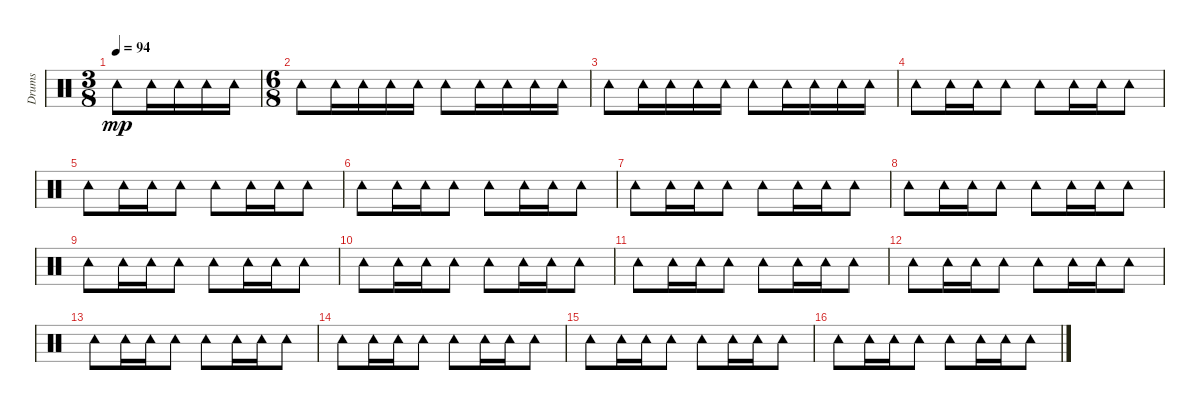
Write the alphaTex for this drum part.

\track ("Drums" "Drums") {instrument percussion}
\staff {score}
\articulation defaults
\ts (3 8)
\tempo 94
\clef neutral
\ks c "Tambourine (hit)".8{dy mp} "Tambourine (hit)".16 "Tambourine (hit)".16 "Tambourine (hit)".16 "Tambourine (hit)".16
|
\ts (6 8)
"Tambourine (hit)".8 "Tambourine (hit)".16 "Tambourine (hit)".16 "Tambourine (hit)".16 "Tambourine (hit)".16 "Tambourine (hit)".8 "Tambourine (hit)".16 "Tambourine (hit)".16 "Tambourine (hit)".16 "Tambourine (hit)".16 |
"Tambourine (hit)".8 "Tambourine (hit)".16 "Tambourine (hit)".16 "Tambourine (hit)".16 "Tambourine (hit)".16 "Tambourine (hit)".8 "Tambourine (hit)".16 "Tambourine (hit)".16 "Tambourine (hit)".16 "Tambourine (hit)".16 |
"Tambourine (hit)".8 "Tambourine (hit)".16 "Tambourine (hit)".16 "Tambourine (hit)".8 "Tambourine (hit)".8 "Tambourine (hit)".16 "Tambourine (hit)".16 "Tambourine (hit)".8 |
"Tambourine (hit)".8 "Tambourine (hit)".16 "Tambourine (hit)".16 "Tambourine (hit)".8 "Tambourine (hit)".8 "Tambourine (hit)".16 "Tambourine (hit)".16 "Tambourine (hit)".8 |
"Tambourine (hit)".8 "Tambourine (hit)".16 "Tambourine (hit)".16 "Tambourine (hit)".8 "Tambourine (hit)".8 "Tambourine (hit)".16 "Tambourine (hit)".16 "Tambourine (hit)".8 |
"Tambourine (hit)".8 "Tambourine (hit)".16 "Tambourine (hit)".16 "Tambourine (hit)".8 "Tambourine (hit)".8 "Tambourine (hit)".16 "Tambourine (hit)".16 "Tambourine (hit)".8 |
"Tambourine (hit)".8 "Tambourine (hit)".16 "Tambourine (hit)".16 "Tambourine (hit)".8 "Tambourine (hit)".8 "Tambourine (hit)".16 "Tambourine (hit)".16 "Tambourine (hit)".8 |
"Tambourine (hit)".8 "Tambourine (hit)".16 "Tambourine (hit)".16 "Tambourine (hit)".8 "Tambourine (hit)".8 "Tambourine (hit)".16 "Tambourine (hit)".16 "Tambourine (hit)".8 |
"Tambourine (hit)".8 "Tambourine (hit)".16 "Tambourine (hit)".16 "Tambourine (hit)".8 "Tambourine (hit)".8 "Tambourine (hit)".16 "Tambourine (hit)".16 "Tambourine (hit)".8 |
"Tambourine (hit)".8 "Tambourine (hit)".16 "Tambourine (hit)".16 "Tambourine (hit)".8 "Tambourine (hit)".8 "Tambourine (hit)".16 "Tambourine (hit)".16 "Tambourine (hit)".8 |
"Tambourine (hit)".8 "Tambourine (hit)".16 "Tambourine (hit)".16 "Tambourine (hit)".8 "Tambourine (hit)".8 "Tambourine (hit)".16 "Tambourine (hit)".16 "Tambourine (hit)".8 |
"Tambourine (hit)".8 "Tambourine (hit)".16 "Tambourine (hit)".16 "Tambourine (hit)".8 "Tambourine (hit)".8 "Tambourine (hit)".16 "Tambourine (hit)".16 "Tambourine (hit)".8 |
"Tambourine (hit)".8 "Tambourine (hit)".16 "Tambourine (hit)".16 "Tambourine (hit)".8 "Tambourine (hit)".8 "Tambourine (hit)".16 "Tambourine (hit)".16 "Tambourine (hit)".8 |
"Tambourine (hit)".8 "Tambourine (hit)".16 "Tambourine (hit)".16 "Tambourine (hit)".8 "Tambourine (hit)".8 "Tambourine (hit)".16 "Tambourine (hit)".16 "Tambourine (hit)".8 |
"Tambourine (hit)".8 "Tambourine (hit)".16 "Tambourine (hit)".16 "Tambourine (hit)".8 "Tambourine (hit)".8 "Tambourine (hit)".16 "Tambourine (hit)".16 "Tambourine (hit)".8
